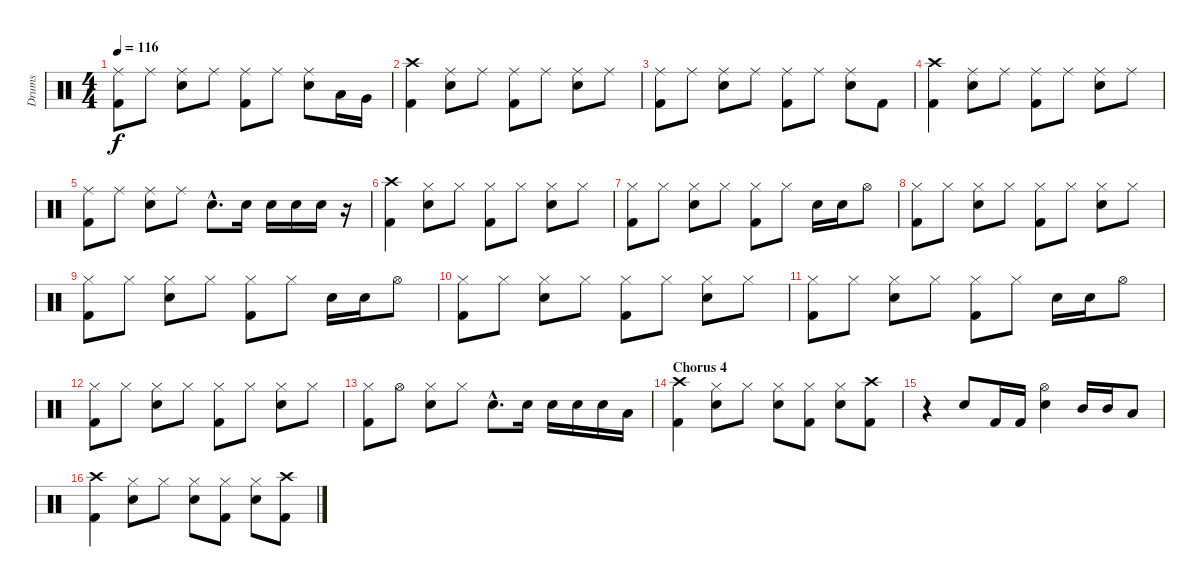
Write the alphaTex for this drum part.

\track ("Drums" "Drums") {instrument percussion}
\staff {score}
\articulation defaults
\ts (4 4)
\tempo 116
\clef neutral
\ks c
("Ride (middle)" "Kick (hit) 2").8{dy f} "Ride (middle)".8 ("Ride (middle)" "Snare (hit) 2").8 "Ride (middle)".8 ("Ride (middle)" "Kick (hit) 2").8 "Ride (middle)".8 ("Ride (middle)" "Snare (hit) 2").8 "Low Tom (hit)".16 "Very Low Tom (hit)".16 |
("Crash high (hit)" "Kick (hit) 2").4 ("Ride (middle)" "Snare (hit) 2").8 "Ride (middle)".8 ("Ride (middle)" "Kick (hit) 2").8 "Ride (middle)".8 ("Ride (middle)" "Snare (hit) 2").8 "Ride (middle)".8 |
("Ride (middle)" "Kick (hit) 2").8 "Ride (middle)".8 ("Ride (middle)" "Snare (hit) 2").8 "Ride (middle)".8 ("Ride (middle)" "Kick (hit) 2").8 "Ride (middle)".8 ("Ride (middle)" "Snare (hit) 2").8 "Kick (hit) 2".8 |
("Crash high (hit)" "Kick (hit) 2").4 ("Ride (middle)" "Snare (hit) 2").8 "Ride (middle)".8 ("Ride (middle)" "Kick (hit) 2").8 "Ride (middle)".8 ("Ride (middle)" "Snare (hit) 2").8 "Ride (middle)".8 |
("Ride (middle)" "Kick (hit) 2").8 "Ride (middle)".8 ("Ride (middle)" "Snare (hit) 2").8 "Ride (middle)".8 "Snare (hit) 2"{hac}.8{d} "Snare (hit) 2".16 "Snare (hit) 2".16 "Snare (hit) 2".16 "Snare (hit) 2".16 r.16 |
("Crash high (hit)" "Kick (hit) 2").4 ("Hi-Hat (closed)" "Snare (hit) 2").8 "Hi-Hat (closed)".8 ("Hi-Hat (closed)" "Kick (hit) 2").8 "Hi-Hat (closed)".8 ("Hi-Hat (closed)" "Snare (hit) 2").8 "Hi-Hat (closed)".8 |
("Hi-Hat (closed)" "Kick (hit) 2").8 "Hi-Hat (closed)".8 ("Hi-Hat (closed)" "Snare (hit) 2").8 "Hi-Hat (closed)".8 ("Hi-Hat (closed)" "Kick (hit) 2").8 "Hi-Hat (closed)".8 "Snare (hit) 2".16 "Snare (hit) 2".16 "Hi-Hat (open)".8 |
("Hi-Hat (closed)" "Kick (hit) 2").8 "Hi-Hat (closed)".8 ("Hi-Hat (closed)" "Snare (hit) 2").8 "Hi-Hat (closed)".8 ("Hi-Hat (closed)" "Kick (hit) 2").8 "Hi-Hat (closed)".8 ("Hi-Hat (closed)" "Snare (hit) 2").8 "Hi-Hat (closed)".8 |
("Hi-Hat (closed)" "Kick (hit) 2").8 "Hi-Hat (closed)".8 ("Hi-Hat (closed)" "Snare (hit) 2").8 "Hi-Hat (closed)".8 ("Hi-Hat (closed)" "Kick (hit) 2").8 "Hi-Hat (closed)".8 "Snare (hit) 2".16 "Snare (hit) 2".16 "Hi-Hat (open)".8 |
("Hi-Hat (closed)" "Kick (hit) 2").8 "Hi-Hat (closed)".8 ("Hi-Hat (closed)" "Snare (hit) 2").8 "Hi-Hat (closed)".8 ("Hi-Hat (closed)" "Kick (hit) 2").8 "Hi-Hat (closed)".8 ("Hi-Hat (closed)" "Snare (hit) 2").8 "Hi-Hat (closed)".8 |
("Hi-Hat (closed)" "Kick (hit) 2").8 "Hi-Hat (closed)".8 ("Hi-Hat (closed)" "Snare (hit) 2").8 "Hi-Hat (closed)".8 ("Hi-Hat (closed)" "Kick (hit) 2").8 "Hi-Hat (closed)".8 "Snare (hit) 2".16 "Snare (hit) 2".16 "Hi-Hat (open)".8 |
("Hi-Hat (closed)" "Kick (hit) 2").8 "Hi-Hat (closed)".8 ("Hi-Hat (closed)" "Snare (hit) 2").8 "Hi-Hat (closed)".8 ("Hi-Hat (closed)" "Kick (hit) 2").8 "Hi-Hat (closed)".8 ("Hi-Hat (closed)" "Snare (hit) 2").8 "Hi-Hat (closed)".8 |
("Hi-Hat (closed)" "Kick (hit) 2").8 "Hi-Hat (open)".8 ("Hi-Hat (closed)" "Snare (hit) 2").8 "Hi-Hat (closed)".8 "Snare (hit) 2"{hac}.8{d} "Snare (hit) 2".16 "Snare (hit) 2".16 "Snare (hit) 2".16 "Snare (hit) 2".16 "Low Tom (hit)".16 |
\section ("" "Chorus 4")
("Crash high (hit)" "Kick (hit) 2").4 ("Hi-Hat (closed)" "Snare (hit) 2").8 "Hi-Hat (closed)".8 ("Hi-Hat (closed)" "Snare (hit) 2").8 ("Hi-Hat (closed)" "Kick (hit) 2").8 ("Hi-Hat (closed)" "Snare (hit) 2").8 ("Crash high (hit)" "Kick (hit) 2").8 |
r.4 "Snare (hit) 2".8 "Kick (hit) 2".16 "Kick (hit) 2".16 ("Hi-Hat (open)" "Snare (hit) 2").4 "Mid Tom (hit)".16 "Mid Tom (hit)".16 "Low Tom (hit)".8 |
("Crash high (hit)" "Kick (hit) 2").4 ("Hi-Hat (closed)" "Snare (hit) 2").8 "Hi-Hat (closed)".8 ("Hi-Hat (closed)" "Snare (hit) 2").8 ("Hi-Hat (closed)" "Kick (hit) 2").8 ("Hi-Hat (closed)" "Snare (hit) 2").8 ("Crash high (hit)" "Kick (hit) 2").8
